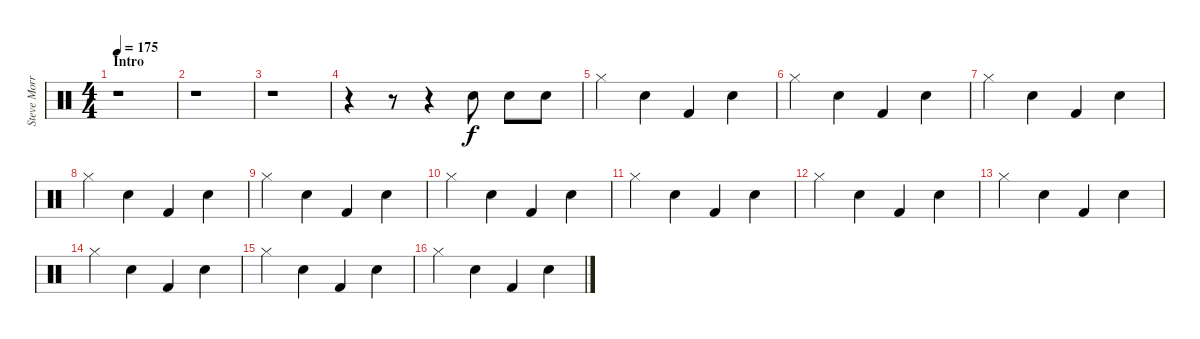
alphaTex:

\track ("Steve Morris" "Steve Morr") {instrument percussion}
\staff {score}
\articulation defaults
\ts (4 4)
\section ("" "Intro")
\tempo 175
\clef neutral
\ks c
r.1{dy f} |
r.1 |
r.1 |
r.4 r.8 r.4 "Snare (hit) 2".8 "Snare (hit) 2".8 "Snare (hit) 2".8 |
"Hi-Hat (closed)".4 "Snare (hit) 2".4 "Kick (hit) 2".4 "Snare (hit) 2".4 |
"Hi-Hat (closed)".4 "Snare (hit) 2".4 "Kick (hit) 2".4 "Snare (hit) 2".4 |
"Hi-Hat (closed)".4 "Snare (hit) 2".4 "Kick (hit) 2".4 "Snare (hit) 2".4 |
"Hi-Hat (closed)".4 "Snare (hit) 2".4 "Kick (hit) 2".4 "Snare (hit) 2".4 |
"Hi-Hat (closed)".4 "Snare (hit) 2".4 "Kick (hit) 2".4 "Snare (hit) 2".4 |
"Hi-Hat (closed)".4 "Snare (hit) 2".4 "Kick (hit) 2".4 "Snare (hit) 2".4 |
"Hi-Hat (closed)".4 "Snare (hit) 2".4 "Kick (hit) 2".4 "Snare (hit) 2".4 |
"Hi-Hat (closed)".4 "Snare (hit) 2".4 "Kick (hit) 2".4 "Snare (hit) 2".4 |
"Hi-Hat (closed)".4 "Snare (hit) 2".4 "Kick (hit) 2".4 "Snare (hit) 2".4 |
"Hi-Hat (closed)".4 "Snare (hit) 2".4 "Kick (hit) 2".4 "Snare (hit) 2".4 |
"Hi-Hat (closed)".4 "Snare (hit) 2".4 "Kick (hit) 2".4 "Snare (hit) 2".4 |
"Hi-Hat (closed)".4 "Snare (hit) 2".4 "Kick (hit) 2".4 "Snare (hit) 2".4
